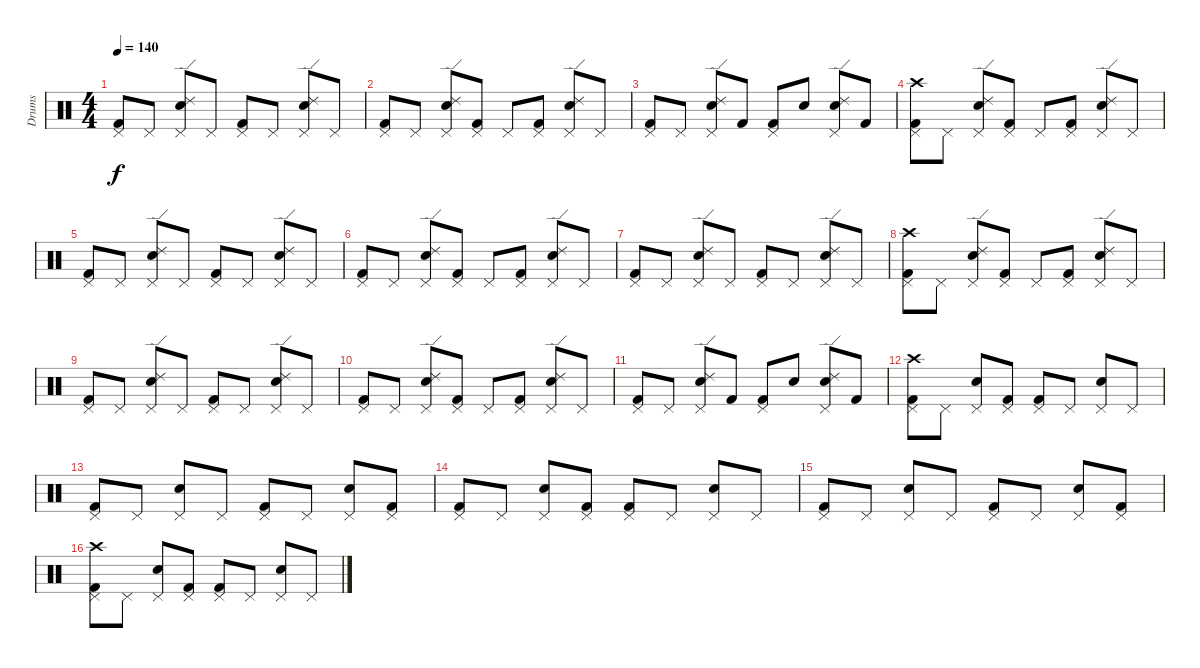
\track ("Drums" "Drums") {instrument percussion}
\staff {score}
\articulation defaults
\ts (4 4)
\tempo 140
\clef neutral
\ks c
("Kick (hit) 2" "Pedal Hi-Hat (hit)").8{dy f} "Pedal Hi-Hat (hit)".8 ("Snare (hit) 2" "Pedal Hi-Hat (hit)" "Ride (edge) 2").8 "Pedal Hi-Hat (hit)".8 ("Kick (hit) 2" "Pedal Hi-Hat (hit)").8 "Pedal Hi-Hat (hit)".8 ("Snare (hit) 2" "Pedal Hi-Hat (hit)" "Ride (edge) 2").8 "Pedal Hi-Hat (hit)".8 |
("Kick (hit) 2" "Pedal Hi-Hat (hit)").8 "Pedal Hi-Hat (hit)".8 ("Snare (hit) 2" "Pedal Hi-Hat (hit)" "Ride (edge) 2").8 ("Kick (hit) 2" "Pedal Hi-Hat (hit)").8 "Pedal Hi-Hat (hit)".8 ("Kick (hit) 2" "Pedal Hi-Hat (hit)").8 ("Snare (hit) 2" "Pedal Hi-Hat (hit)" "Ride (edge) 2").8 "Pedal Hi-Hat (hit)".8 |
("Kick (hit) 2" "Pedal Hi-Hat (hit)").8 "Pedal Hi-Hat (hit)".8 ("Snare (hit) 2" "Pedal Hi-Hat (hit)" "Ride (edge) 2").8 "Kick (hit) 2".8 ("Kick (hit) 2" "Pedal Hi-Hat (hit)").8 "Snare (hit) 2".8 ("Snare (hit) 2" "Pedal Hi-Hat (hit)" "Ride (edge) 2").8 "Kick (hit) 2".8 |
("Kick (hit) 2" "Pedal Hi-Hat (hit)" "Crash high (hit)").8 "Pedal Hi-Hat (hit)".8 ("Snare (hit) 2" "Pedal Hi-Hat (hit)" "Ride (edge) 2").8 ("Kick (hit) 2" "Pedal Hi-Hat (hit)").8 "Pedal Hi-Hat (hit)".8 ("Kick (hit) 2" "Pedal Hi-Hat (hit)").8 ("Snare (hit) 2" "Pedal Hi-Hat (hit)" "Ride (edge) 2").8 "Pedal Hi-Hat (hit)".8 |
("Kick (hit) 2" "Pedal Hi-Hat (hit)").8 "Pedal Hi-Hat (hit)".8 ("Snare (hit) 2" "Pedal Hi-Hat (hit)" "Ride (edge) 2").8 "Pedal Hi-Hat (hit)".8 ("Kick (hit) 2" "Pedal Hi-Hat (hit)").8 "Pedal Hi-Hat (hit)".8 ("Snare (hit) 2" "Pedal Hi-Hat (hit)" "Ride (edge) 2").8 "Pedal Hi-Hat (hit)".8 |
("Kick (hit) 2" "Pedal Hi-Hat (hit)").8 "Pedal Hi-Hat (hit)".8 ("Snare (hit) 2" "Pedal Hi-Hat (hit)" "Ride (edge) 2").8 ("Kick (hit) 2" "Pedal Hi-Hat (hit)").8 "Pedal Hi-Hat (hit)".8 ("Kick (hit) 2" "Pedal Hi-Hat (hit)").8 ("Snare (hit) 2" "Pedal Hi-Hat (hit)" "Ride (edge) 2").8 "Pedal Hi-Hat (hit)".8 |
("Kick (hit) 2" "Pedal Hi-Hat (hit)").8 "Pedal Hi-Hat (hit)".8 ("Snare (hit) 2" "Pedal Hi-Hat (hit)" "Ride (edge) 2").8 "Pedal Hi-Hat (hit)".8 ("Kick (hit) 2" "Pedal Hi-Hat (hit)").8 "Pedal Hi-Hat (hit)".8 ("Snare (hit) 2" "Pedal Hi-Hat (hit)" "Ride (edge) 2").8 "Pedal Hi-Hat (hit)".8 |
("Kick (hit) 2" "Pedal Hi-Hat (hit)" "Crash high (hit)").8 "Pedal Hi-Hat (hit)".8 ("Snare (hit) 2" "Pedal Hi-Hat (hit)" "Ride (edge) 2").8 ("Kick (hit) 2" "Pedal Hi-Hat (hit)").8 "Pedal Hi-Hat (hit)".8 ("Kick (hit) 2" "Pedal Hi-Hat (hit)").8 ("Snare (hit) 2" "Pedal Hi-Hat (hit)" "Ride (edge) 2").8 "Pedal Hi-Hat (hit)".8 |
("Kick (hit) 2" "Pedal Hi-Hat (hit)").8 "Pedal Hi-Hat (hit)".8 ("Snare (hit) 2" "Pedal Hi-Hat (hit)" "Ride (edge) 2").8 "Pedal Hi-Hat (hit)".8 ("Kick (hit) 2" "Pedal Hi-Hat (hit)").8 "Pedal Hi-Hat (hit)".8 ("Snare (hit) 2" "Pedal Hi-Hat (hit)" "Ride (edge) 2").8 "Pedal Hi-Hat (hit)".8 |
("Kick (hit) 2" "Pedal Hi-Hat (hit)").8 "Pedal Hi-Hat (hit)".8 ("Snare (hit) 2" "Pedal Hi-Hat (hit)" "Ride (edge) 2").8 ("Kick (hit) 2" "Pedal Hi-Hat (hit)").8 "Pedal Hi-Hat (hit)".8 ("Kick (hit) 2" "Pedal Hi-Hat (hit)").8 ("Snare (hit) 2" "Pedal Hi-Hat (hit)" "Ride (edge) 2").8 "Pedal Hi-Hat (hit)".8 |
("Kick (hit) 2" "Pedal Hi-Hat (hit)").8 "Pedal Hi-Hat (hit)".8 ("Snare (hit) 2" "Pedal Hi-Hat (hit)" "Ride (edge) 2").8 "Kick (hit) 2".8 ("Kick (hit) 2" "Pedal Hi-Hat (hit)").8 "Snare (hit) 2".8 ("Snare (hit) 2" "Pedal Hi-Hat (hit)" "Ride (edge) 2").8 "Kick (hit) 2".8 |
("Kick (hit) 2" "Pedal Hi-Hat (hit)" "Crash high (hit)").8 "Pedal Hi-Hat (hit)".8 ("Snare (hit) 2" "Pedal Hi-Hat (hit)").8 ("Kick (hit) 2" "Pedal Hi-Hat (hit)").8 ("Kick (hit) 2" "Pedal Hi-Hat (hit)").8 "Pedal Hi-Hat (hit)".8 ("Snare (hit) 2" "Pedal Hi-Hat (hit)").8 "Pedal Hi-Hat (hit)".8 |
("Kick (hit) 2" "Pedal Hi-Hat (hit)").8 "Pedal Hi-Hat (hit)".8 ("Snare (hit) 2" "Pedal Hi-Hat (hit)").8 "Pedal Hi-Hat (hit)".8 ("Kick (hit) 2" "Pedal Hi-Hat (hit)").8 "Pedal Hi-Hat (hit)".8 ("Snare (hit) 2" "Pedal Hi-Hat (hit)").8 ("Kick (hit) 2" "Pedal Hi-Hat (hit)").8 |
("Kick (hit) 2" "Pedal Hi-Hat (hit)").8 "Pedal Hi-Hat (hit)".8 ("Snare (hit) 2" "Pedal Hi-Hat (hit)").8 ("Kick (hit) 2" "Pedal Hi-Hat (hit)").8 ("Kick (hit) 2" "Pedal Hi-Hat (hit)").8 "Pedal Hi-Hat (hit)".8 ("Snare (hit) 2" "Pedal Hi-Hat (hit)").8 "Pedal Hi-Hat (hit)".8 |
("Kick (hit) 2" "Pedal Hi-Hat (hit)").8 "Pedal Hi-Hat (hit)".8 ("Snare (hit) 2" "Pedal Hi-Hat (hit)").8 "Pedal Hi-Hat (hit)".8 ("Kick (hit) 2" "Pedal Hi-Hat (hit)").8 "Pedal Hi-Hat (hit)".8 ("Snare (hit) 2" "Pedal Hi-Hat (hit)").8 ("Kick (hit) 2" "Pedal Hi-Hat (hit)").8 |
("Kick (hit) 2" "Pedal Hi-Hat (hit)" "Crash high (hit)").8 "Pedal Hi-Hat (hit)".8 ("Snare (hit) 2" "Pedal Hi-Hat (hit)").8 ("Kick (hit) 2" "Pedal Hi-Hat (hit)").8 ("Kick (hit) 2" "Pedal Hi-Hat (hit)").8 "Pedal Hi-Hat (hit)".8 ("Snare (hit) 2" "Pedal Hi-Hat (hit)").8 "Pedal Hi-Hat (hit)".8
